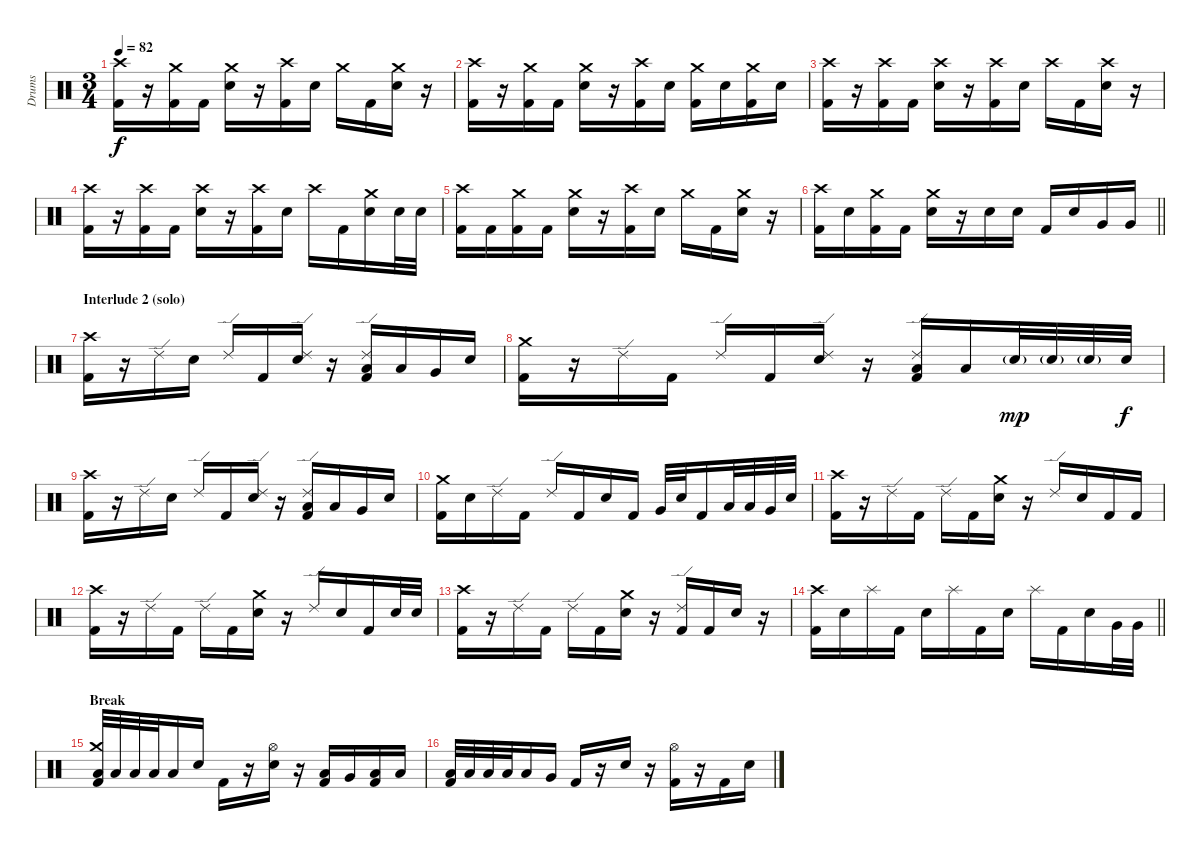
\track ("Drums" "Drums") {instrument percussion}
\staff {score}
\articulation defaults
\ts (3 4)
\tempo 82
\clef neutral
\ks c
("Crash high (hit)" "Kick (hit) 2").16{dy f} r.16 ("Crash medium (hit)" "Kick (hit) 2").16 "Kick (hit) 2".16 ("Crash medium (hit)" "Electric Snare (hit)").16 r.16 ("Crash high (hit)" "Kick (hit) 2").16 "Electric Snare (hit)".16 "Crash medium (hit)".16 "Kick (hit) 2".16 ("Crash medium (hit)" "Electric Snare (hit)").16 r.16 |
("Crash high (hit)" "Kick (hit) 2").16 r.16 ("Crash medium (hit)" "Kick (hit) 2").16 "Kick (hit) 2".16 ("Crash medium (hit)" "Electric Snare (hit)").16 r.16 ("Crash high (hit)" "Kick (hit) 2").16 "Electric Snare (hit)".16 ("Crash medium (hit)" "Kick (hit) 2").16 "Electric Snare (hit)".16 ("Crash medium (hit)" "Kick (hit) 2").16 "Electric Snare (hit)".16 |
("Crash high (hit)" "Kick (hit) 2").16 r.16 ("Crash high (hit)" "Kick (hit) 2").16 "Kick (hit) 2".16 ("Crash high (hit)" "Electric Snare (hit)").16 r.16 ("Crash high (hit)" "Kick (hit) 2").16 "Electric Snare (hit)".16 "Crash high (hit)".16 "Kick (hit) 2".16 ("Crash high (hit)" "Electric Snare (hit)").16 r.16 |
("Crash high (hit)" "Kick (hit) 2").16 r.16 ("Crash high (hit)" "Kick (hit) 2").16 "Kick (hit) 2".16 ("Crash high (hit)" "Electric Snare (hit)").16 r.16 ("Crash high (hit)" "Kick (hit) 2").16 "Electric Snare (hit)".16 "Crash high (hit)".16 "Kick (hit) 2".16 ("Crash medium (hit)" "Electric Snare (hit)").16 "Electric Snare (hit)".32 "Electric Snare (hit)".32 |
("Crash high (hit)" "Kick (hit) 2").16 "Kick (hit) 2".16 ("Crash medium (hit)" "Kick (hit) 2").16 "Kick (hit) 2".16 ("Crash medium (hit)" "Electric Snare (hit)").16 r.16 ("Crash high (hit)" "Kick (hit) 2").16 "Electric Snare (hit)".16 "Crash medium (hit)".16 "Kick (hit) 2".16 ("Crash medium (hit)" "Electric Snare (hit)").16 r.16 |
\barLineRight lightlight
("Crash high (hit)" "Kick (hit) 2").16 "Electric Snare (hit)".16 ("Crash medium (hit)" "Kick (hit) 2").16 "Kick (hit) 2".16 ("Crash medium (hit)" "Electric Snare (hit)").16 r.16 "Electric Snare (hit)".16 "Electric Snare (hit)".16 "Kick (hit) 2".16 "Electric Snare (hit)".16 "Very Low Tom (hit)".16 "Very Low Tom (hit)".16 |
\section ("" "Interlude 2 (solo)")
("Crash high (hit)" "Kick (hit) 2").16 r.16 "Ride (edge) 2".16 "Electric Snare (hit)".16 "Ride (edge) 2".16 "Kick (hit) 2".16 ("Ride (edge) 2" "Electric Snare (hit)").16 r.16 ("Ride (edge) 2" "Low Tom (hit)" "Kick (hit) 2").16 "Low Tom (hit)".16 "Very Low Tom (hit)".16 "Electric Snare (hit)".16 |
("Crash medium (hit)" "Kick (hit) 2").16 r.16 "Ride (edge) 2".16 "Kick (hit) 2".16 "Ride (edge) 2".16 "Kick (hit) 2".16 ("Ride (edge) 2" "Electric Snare (hit)").16 r.16 ("Ride (edge) 2" "Low Tom (hit)" "Kick (hit) 2").16 "Low Tom (hit)".16 "Electric Snare (hit)"{g}.32{dy mp} "Electric Snare (hit)"{g}.32 "Electric Snare (hit)"{g}.32 "Electric Snare (hit)".32{dy f} |
("Crash high (hit)" "Kick (hit) 2").16 r.16 "Ride (edge) 2".16 "Electric Snare (hit)".16 "Ride (edge) 2".16 "Kick (hit) 2".16 ("Ride (edge) 2" "Electric Snare (hit)").16 r.16 ("Ride (edge) 2" "Low Tom (hit)" "Kick (hit) 2").16 "Low Tom (hit)".16 "Very Low Tom (hit)".16 "Electric Snare (hit)".16 |
("Crash medium (hit)" "Kick (hit) 2").16 "Electric Snare (hit)".16 "Ride (edge) 2".16 "Kick (hit) 2".16 "Ride (edge) 2".16 "Kick (hit) 2".16 "Electric Snare (hit)".16 "Kick (hit) 2".16 "Very Low Tom (hit)".32 "Electric Snare (hit)".32 "Kick (hit) 2".16 "Low Tom (hit)".32 "Low Tom (hit)".32 "Very Low Tom (hit)".32 "Electric Snare (hit)".32 |
("Crash high (hit)" "Kick (hit) 2").16 r.16 "Ride (edge) 2".16 "Kick (hit) 2".16 "Ride (edge) 2".16 "Kick (hit) 2".16 ("Crash medium (hit)" "Electric Snare (hit)").16 r.16 "Ride (edge) 2".16 "Electric Snare (hit)".16 "Kick (hit) 2".16 "Kick (hit) 2".16 |
("Crash high (hit)" "Kick (hit) 2").16 r.16 "Ride (edge) 2".16 "Kick (hit) 2".16 "Ride (edge) 2".16 "Kick (hit) 2".16 ("Crash medium (hit)" "Electric Snare (hit)").16 r.16 "Ride (edge) 2".16 "Electric Snare (hit)".16 "Kick (hit) 2".16 "Electric Snare (hit)".32 "Electric Snare (hit)".32 |
("Crash high (hit)" "Kick (hit) 2").16 r.16 "Ride (edge) 2".16 "Kick (hit) 2".16 "Ride (edge) 2".16 "Kick (hit) 2".16 ("Crash medium (hit)" "Electric Snare (hit)").16 r.16 ("Ride (edge) 2" "Kick (hit) 2").16 "Kick (hit) 2".16 "Electric Snare (hit)".16 r.16 |
\barLineRight lightlight
("Crash high (hit)" "Kick (hit) 2").16 "Electric Snare (hit)".16 "Splash (hit)".16 "Kick (hit) 2".16 "Electric Snare (hit)".16 "Splash (hit)".16 "Kick (hit) 2".16 "Electric Snare (hit)".16 "Splash (hit)".16 "Kick (hit) 2".16 "Electric Snare (hit)".16 "Very Low Tom (hit)".32 "Very Low Tom (hit)".32 |
\section ("" "Break")
("Crash medium (hit)" "Low Tom (hit)" "Kick (hit) 2").32 "Low Tom (hit)".32 "Low Tom (hit)".32 "Low Tom (hit)".32 "Low Tom (hit)".16 "Electric Snare (hit)".16 "Kick (hit) 2".16 r.16 ("Hi-Hat (open)" "Electric Snare (hit)").16 r.16 ("Low Floor Tom (hit)" "Kick (hit) 2").16 "Very Low Tom (hit)".16 ("Low Floor Tom (hit)" "Kick (hit) 2").16 "Low Floor Tom (hit)".16 |
("Low Tom (hit)" "Kick (hit) 2").32 "Low Tom (hit)".32 "Low Tom (hit)".32 "Low Tom (hit)".32 "Low Tom (hit)".16 "Very Low Tom (hit)".16 "Kick (hit) 2".16 r.16 "Electric Snare (hit)".16 r.16 ("Hi-Hat (open)" "Kick (hit) 2").16 r.16 "Kick (hit) 2".16 "Electric Snare (hit)".16
